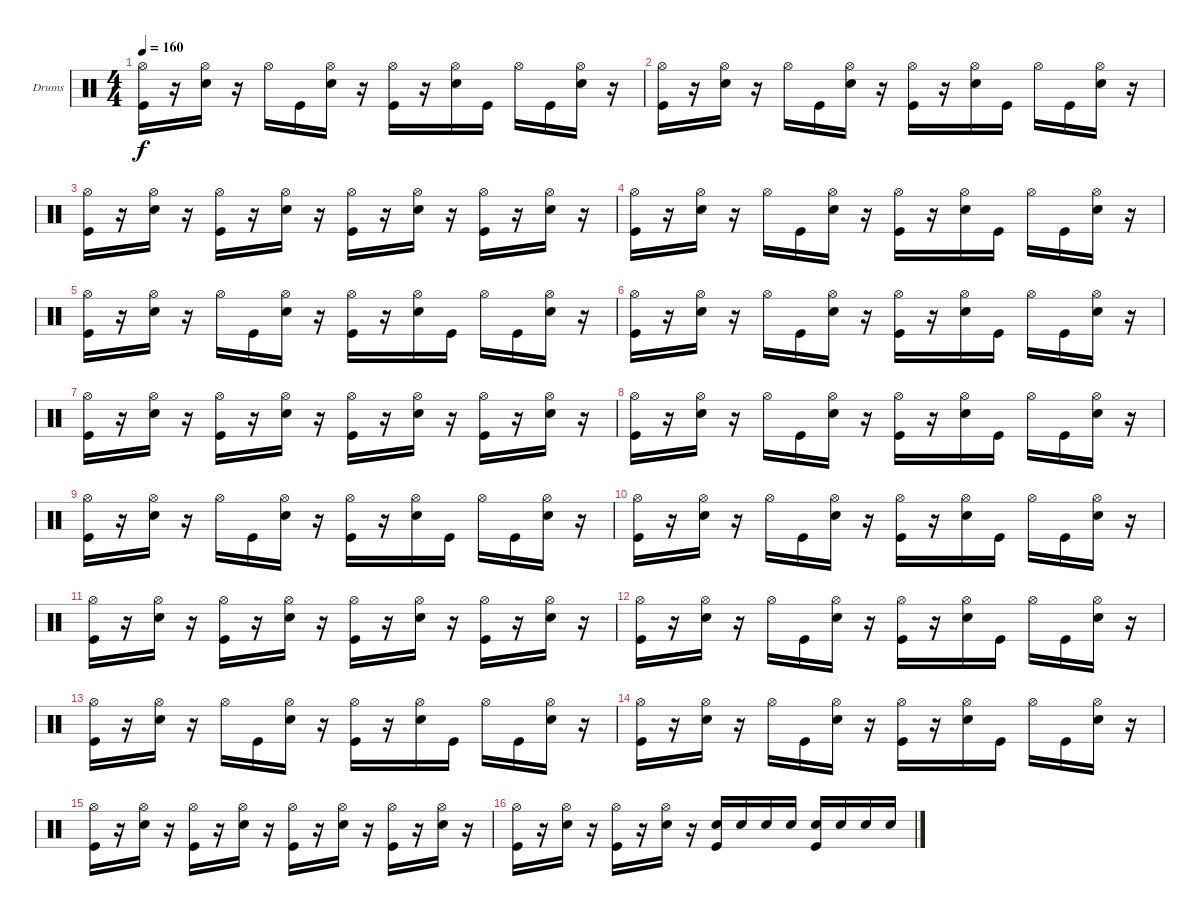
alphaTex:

\defaultSystemsLayout 4
\bracketExtendMode groupsimilarinstruments
\firstSystemTrackNameOrientation horizontal
\otherSystemsTrackNameOrientation horizontal
\track ("Drumkit" "Drums") {instrument percussion}
\staff {score}
\articulation defaults
\ts (4 4)
\tempo 160
\clef neutral
\ks c
("Hi-Hat (open)" "Kick (hit)").16{dy f} r.16 ("Hi-Hat (open)" "Snare (hit) 2").16 r.16 "Hi-Hat (open)".16 "Kick (hit)".16 ("Hi-Hat (open)" "Snare (hit) 2").16 r.16 ("Hi-Hat (open)" "Kick (hit)").16 r.16 ("Hi-Hat (open)" "Snare (hit) 2").16 "Kick (hit)".16 "Hi-Hat (open)".16 "Kick (hit)".16 ("Hi-Hat (open)" "Snare (hit) 2").16 r.16 |
("Hi-Hat (open)" "Kick (hit)").16 r.16 ("Hi-Hat (open)" "Snare (hit) 2").16 r.16 "Hi-Hat (open)".16 "Kick (hit)".16 ("Hi-Hat (open)" "Snare (hit) 2").16 r.16 ("Hi-Hat (open)" "Kick (hit)").16 r.16 ("Hi-Hat (open)" "Snare (hit) 2").16 "Kick (hit)".16 "Hi-Hat (open)".16 "Kick (hit)".16 ("Hi-Hat (open)" "Snare (hit) 2").16 r.16 |
("Hi-Hat (open)" "Kick (hit)").16 r.16 ("Hi-Hat (open)" "Snare (hit) 2").16 r.16 ("Hi-Hat (open)" "Kick (hit)").16 r.16 ("Hi-Hat (open)" "Snare (hit) 2").16 r.16 ("Hi-Hat (open)" "Kick (hit)").16 r.16 ("Hi-Hat (open)" "Snare (hit) 2").16 r.16 ("Hi-Hat (open)" "Kick (hit)").16 r.16 ("Hi-Hat (open)" "Snare (hit) 2").16 r.16 |
("Hi-Hat (open)" "Kick (hit)").16 r.16 ("Hi-Hat (open)" "Snare (hit) 2").16 r.16 "Hi-Hat (open)".16 "Kick (hit)".16 ("Hi-Hat (open)" "Snare (hit) 2").16 r.16 ("Hi-Hat (open)" "Kick (hit)").16 r.16 ("Hi-Hat (open)" "Snare (hit) 2").16 "Kick (hit)".16 "Hi-Hat (open)".16 "Kick (hit)".16 ("Hi-Hat (open)" "Snare (hit) 2").16 r.16 |
("Hi-Hat (open)" "Kick (hit)").16 r.16 ("Hi-Hat (open)" "Snare (hit) 2").16 r.16 "Hi-Hat (open)".16 "Kick (hit)".16 ("Hi-Hat (open)" "Snare (hit) 2").16 r.16 ("Hi-Hat (open)" "Kick (hit)").16 r.16 ("Hi-Hat (open)" "Snare (hit) 2").16 "Kick (hit)".16 "Hi-Hat (open)".16 "Kick (hit)".16 ("Hi-Hat (open)" "Snare (hit) 2").16 r.16 |
("Hi-Hat (open)" "Kick (hit)").16 r.16 ("Hi-Hat (open)" "Snare (hit) 2").16 r.16 "Hi-Hat (open)".16 "Kick (hit)".16 ("Hi-Hat (open)" "Snare (hit) 2").16 r.16 ("Hi-Hat (open)" "Kick (hit)").16 r.16 ("Hi-Hat (open)" "Snare (hit) 2").16 "Kick (hit)".16 "Hi-Hat (open)".16 "Kick (hit)".16 ("Hi-Hat (open)" "Snare (hit) 2").16 r.16 |
("Hi-Hat (open)" "Kick (hit)").16 r.16 ("Hi-Hat (open)" "Snare (hit) 2").16 r.16 ("Hi-Hat (open)" "Kick (hit)").16 r.16 ("Hi-Hat (open)" "Snare (hit) 2").16 r.16 ("Hi-Hat (open)" "Kick (hit)").16 r.16 ("Hi-Hat (open)" "Snare (hit) 2").16 r.16 ("Hi-Hat (open)" "Kick (hit)").16 r.16 ("Hi-Hat (open)" "Snare (hit) 2").16 r.16 |
("Hi-Hat (open)" "Kick (hit)").16 r.16 ("Hi-Hat (open)" "Snare (hit) 2").16 r.16 "Hi-Hat (open)".16 "Kick (hit)".16 ("Hi-Hat (open)" "Snare (hit) 2").16 r.16 ("Hi-Hat (open)" "Kick (hit)").16 r.16 ("Hi-Hat (open)" "Snare (hit) 2").16 "Kick (hit)".16 "Hi-Hat (open)".16 "Kick (hit)".16 ("Hi-Hat (open)" "Snare (hit) 2").16 r.16 |
("Hi-Hat (open)" "Kick (hit)").16 r.16 ("Hi-Hat (open)" "Snare (hit) 2").16 r.16 "Hi-Hat (open)".16 "Kick (hit)".16 ("Hi-Hat (open)" "Snare (hit) 2").16 r.16 ("Hi-Hat (open)" "Kick (hit)").16 r.16 ("Hi-Hat (open)" "Snare (hit) 2").16 "Kick (hit)".16 "Hi-Hat (open)".16 "Kick (hit)".16 ("Hi-Hat (open)" "Snare (hit) 2").16 r.16 |
("Hi-Hat (open)" "Kick (hit)").16 r.16 ("Hi-Hat (open)" "Snare (hit) 2").16 r.16 "Hi-Hat (open)".16 "Kick (hit)".16 ("Hi-Hat (open)" "Snare (hit) 2").16 r.16 ("Hi-Hat (open)" "Kick (hit)").16 r.16 ("Hi-Hat (open)" "Snare (hit) 2").16 "Kick (hit)".16 "Hi-Hat (open)".16 "Kick (hit)".16 ("Hi-Hat (open)" "Snare (hit) 2").16 r.16 |
("Hi-Hat (open)" "Kick (hit)").16 r.16 ("Hi-Hat (open)" "Snare (hit) 2").16 r.16 ("Hi-Hat (open)" "Kick (hit)").16 r.16 ("Hi-Hat (open)" "Snare (hit) 2").16 r.16 ("Hi-Hat (open)" "Kick (hit)").16 r.16 ("Hi-Hat (open)" "Snare (hit) 2").16 r.16 ("Hi-Hat (open)" "Kick (hit)").16 r.16 ("Hi-Hat (open)" "Snare (hit) 2").16 r.16 |
("Hi-Hat (open)" "Kick (hit)").16 r.16 ("Hi-Hat (open)" "Snare (hit) 2").16 r.16 "Hi-Hat (open)".16 "Kick (hit)".16 ("Hi-Hat (open)" "Snare (hit) 2").16 r.16 ("Hi-Hat (open)" "Kick (hit)").16 r.16 ("Hi-Hat (open)" "Snare (hit) 2").16 "Kick (hit)".16 "Hi-Hat (open)".16 "Kick (hit)".16 ("Hi-Hat (open)" "Snare (hit) 2").16 r.16 |
("Hi-Hat (open)" "Kick (hit)").16 r.16 ("Hi-Hat (open)" "Snare (hit) 2").16 r.16 "Hi-Hat (open)".16 "Kick (hit)".16 ("Hi-Hat (open)" "Snare (hit) 2").16 r.16 ("Hi-Hat (open)" "Kick (hit)").16 r.16 ("Hi-Hat (open)" "Snare (hit) 2").16 "Kick (hit)".16 "Hi-Hat (open)".16 "Kick (hit)".16 ("Hi-Hat (open)" "Snare (hit) 2").16 r.16 |
("Hi-Hat (open)" "Kick (hit)").16 r.16 ("Hi-Hat (open)" "Snare (hit) 2").16 r.16 "Hi-Hat (open)".16 "Kick (hit)".16 ("Hi-Hat (open)" "Snare (hit) 2").16 r.16 ("Hi-Hat (open)" "Kick (hit)").16 r.16 ("Hi-Hat (open)" "Snare (hit) 2").16 "Kick (hit)".16 "Hi-Hat (open)".16 "Kick (hit)".16 ("Hi-Hat (open)" "Snare (hit) 2").16 r.16 |
("Hi-Hat (open)" "Kick (hit)").16 r.16 ("Hi-Hat (open)" "Snare (hit) 2").16 r.16 ("Hi-Hat (open)" "Kick (hit)").16 r.16 ("Hi-Hat (open)" "Snare (hit) 2").16 r.16 ("Hi-Hat (open)" "Kick (hit)").16 r.16 ("Hi-Hat (open)" "Snare (hit) 2").16 r.16 ("Hi-Hat (open)" "Kick (hit)").16 r.16 ("Hi-Hat (open)" "Snare (hit) 2").16 r.16 |
("Hi-Hat (open)" "Kick (hit)").16 r.16 ("Hi-Hat (open)" "Snare (hit) 2").16 r.16 ("Hi-Hat (open)" "Kick (hit)").16 r.16 ("Hi-Hat (open)" "Snare (hit) 2").16 r.16 ("Snare (hit) 2" "Kick (hit)").16 "Snare (hit) 2".16 "Snare (hit) 2".16 "Snare (hit) 2".16 ("Snare (hit) 2" "Kick (hit)").16 "Snare (hit) 2".16 "Snare (hit) 2".16 "Snare (hit) 2".16
